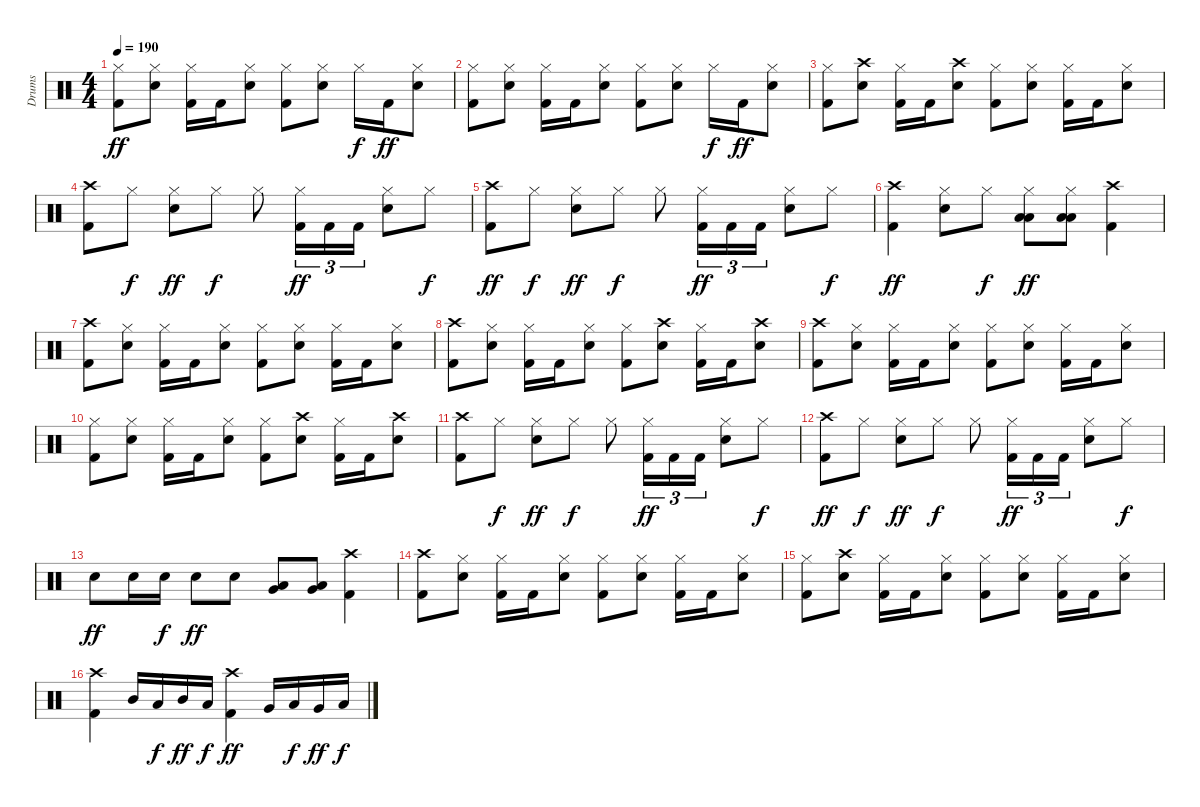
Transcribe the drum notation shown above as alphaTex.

\track ("Drums" "Drums") {instrument percussion}
\staff {score}
\articulation defaults
\ts (4 4)
\tempo 190
\clef neutral
\ks c
("Hi-Hat (closed)" "Kick (hit) 2").8{dy ff} ("Hi-Hat (closed)" "Snare (hit) 2").8 ("Hi-Hat (closed)" "Kick (hit) 2").16 "Kick (hit) 2".16 ("Hi-Hat (closed)" "Snare (hit) 2").8 ("Hi-Hat (closed)" "Kick (hit) 2").8 ("Hi-Hat (closed)" "Snare (hit) 2").8 "Hi-Hat (closed)".16{dy f} "Kick (hit) 2".16{dy ff} ("Hi-Hat (closed)" "Snare (hit) 2").8 |
("Hi-Hat (closed)" "Kick (hit) 2").8 ("Hi-Hat (closed)" "Snare (hit) 2").8 ("Hi-Hat (closed)" "Kick (hit) 2").16 "Kick (hit) 2".16 ("Hi-Hat (closed)" "Snare (hit) 2").8 ("Hi-Hat (closed)" "Kick (hit) 2").8 ("Hi-Hat (closed)" "Snare (hit) 2").8 "Hi-Hat (closed)".16{dy f} "Kick (hit) 2".16{dy ff} ("Hi-Hat (closed)" "Snare (hit) 2").8 |
("Hi-Hat (closed)" "Kick (hit) 2").8 ("Crash high (hit)" "Snare (hit) 2").8 ("Hi-Hat (closed)" "Kick (hit) 2").16 "Kick (hit) 2".16 ("Crash high (hit)" "Snare (hit) 2").8 ("Hi-Hat (closed)" "Kick (hit) 2").8 ("Hi-Hat (closed)" "Snare (hit) 2").8 ("Hi-Hat (closed)" "Kick (hit) 2").16 "Kick (hit) 2".16 ("Hi-Hat (closed)" "Snare (hit) 2").8 |
("Crash high (hit)" "Kick (hit) 2").8 "Hi-Hat (closed)".8{dy f} ("Hi-Hat (closed)" "Snare (hit) 2").8{dy ff} "Hi-Hat (closed)".8{dy f} "Hi-Hat (closed)".8 ("Hi-Hat (closed)" "Kick (hit) 2").16{tu (3 2) dy ff} "Kick (hit) 2".16{tu (3 2)} "Kick (hit) 2".16{tu (3 2)} ("Hi-Hat (closed)" "Snare (hit) 2").8 "Hi-Hat (closed)".8{dy f} |
("Crash high (hit)" "Kick (hit) 2").8{dy ff} "Hi-Hat (closed)".8{dy f} ("Hi-Hat (closed)" "Snare (hit) 2").8{dy ff} "Hi-Hat (closed)".8{dy f} "Hi-Hat (closed)".8 ("Hi-Hat (closed)" "Kick (hit) 2").16{tu (3 2) dy ff} "Kick (hit) 2".16{tu (3 2)} "Kick (hit) 2".16{tu (3 2)} ("Hi-Hat (closed)" "Snare (hit) 2").8 "Hi-Hat (closed)".8{dy f} |
("Crash high (hit)" "Kick (hit) 2").4{dy ff} ("Hi-Hat (closed)" "Snare (hit) 2").8 "Hi-Hat (closed)".8{dy f} ("Hi-Hat (closed)" "Low Tom (hit)" "Low Floor Tom (hit)").8{dy ff} ("Hi-Hat (closed)" "Low Tom (hit)" "Low Floor Tom (hit)").8 ("Crash high (hit)" "Kick (hit) 2").4 |
("Crash high (hit)" "Kick (hit) 2").8 ("Hi-Hat (closed)" "Snare (hit) 2").8 ("Hi-Hat (closed)" "Kick (hit) 2").16 "Kick (hit) 2".16 ("Hi-Hat (closed)" "Snare (hit) 2").8 ("Hi-Hat (closed)" "Kick (hit) 2").8 ("Hi-Hat (closed)" "Snare (hit) 2").8 ("Hi-Hat (closed)" "Kick (hit) 2").16 "Kick (hit) 2".16 ("Hi-Hat (closed)" "Snare (hit) 2").8 |
("Crash high (hit)" "Kick (hit) 2").8 ("Hi-Hat (closed)" "Snare (hit) 2").8 ("Hi-Hat (closed)" "Kick (hit) 2").16 "Kick (hit) 2".16 ("Hi-Hat (closed)" "Snare (hit) 2").8 ("Hi-Hat (closed)" "Kick (hit) 2").8 ("Crash high (hit)" "Snare (hit) 2").8 ("Hi-Hat (closed)" "Kick (hit) 2").16 "Kick (hit) 2".16 ("Crash high (hit)" "Snare (hit) 2").8 |
("Crash high (hit)" "Kick (hit) 2").8 ("Hi-Hat (closed)" "Snare (hit) 2").8 ("Hi-Hat (closed)" "Kick (hit) 2").16 "Kick (hit) 2".16 ("Hi-Hat (closed)" "Snare (hit) 2").8 ("Hi-Hat (closed)" "Kick (hit) 2").8 ("Hi-Hat (closed)" "Snare (hit) 2").8 ("Hi-Hat (closed)" "Kick (hit) 2").16 "Kick (hit) 2".16 ("Hi-Hat (closed)" "Snare (hit) 2").8 |
("Hi-Hat (closed)" "Kick (hit) 2").8 ("Hi-Hat (closed)" "Snare (hit) 2").8 ("Hi-Hat (closed)" "Kick (hit) 2").16 "Kick (hit) 2".16 ("Hi-Hat (closed)" "Snare (hit) 2").8 ("Hi-Hat (closed)" "Kick (hit) 2").8 ("Crash high (hit)" "Snare (hit) 2").8 ("Hi-Hat (closed)" "Kick (hit) 2").16 "Kick (hit) 2".16 ("Crash high (hit)" "Snare (hit) 2").8 |
("Crash high (hit)" "Kick (hit) 2").8 "Hi-Hat (closed)".8{dy f} ("Hi-Hat (closed)" "Snare (hit) 2").8{dy ff} "Hi-Hat (closed)".8{dy f} "Hi-Hat (closed)".8 ("Hi-Hat (closed)" "Kick (hit) 2").16{tu (3 2) dy ff} "Kick (hit) 2".16{tu (3 2)} "Kick (hit) 2".16{tu (3 2)} ("Hi-Hat (closed)" "Snare (hit) 2").8 "Hi-Hat (closed)".8{dy f} |
("Crash high (hit)" "Kick (hit) 2").8{dy ff} "Hi-Hat (closed)".8{dy f} ("Hi-Hat (closed)" "Snare (hit) 2").8{dy ff} "Hi-Hat (closed)".8{dy f} "Hi-Hat (closed)".8 ("Hi-Hat (closed)" "Kick (hit) 2").16{tu (3 2) dy ff} "Kick (hit) 2".16{tu (3 2)} "Kick (hit) 2".16{tu (3 2)} ("Hi-Hat (closed)" "Snare (hit) 2").8 "Hi-Hat (closed)".8{dy f} |
"Snare (hit) 2".8{dy ff} "Snare (hit) 2".16 "Snare (hit) 2".16{dy f} "Snare (hit) 2".8{dy ff} "Snare (hit) 2".8 ("Very Low Tom (hit)" "Low Floor Tom (hit)").8 ("Very Low Tom (hit)" "Low Floor Tom (hit)").8 ("Crash high (hit)" "Kick (hit) 2").4 |
("Crash high (hit)" "Kick (hit) 2").8 ("Hi-Hat (closed)" "Snare (hit) 2").8 ("Hi-Hat (closed)" "Kick (hit) 2").16 "Kick (hit) 2".16 ("Hi-Hat (closed)" "Snare (hit) 2").8 ("Hi-Hat (closed)" "Kick (hit) 2").8 ("Hi-Hat (closed)" "Snare (hit) 2").8 ("Hi-Hat (closed)" "Kick (hit) 2").16 "Kick (hit) 2".16 ("Hi-Hat (closed)" "Snare (hit) 2").8 |
("Hi-Hat (closed)" "Kick (hit) 2").8 ("Crash high (hit)" "Snare (hit) 2").8 ("Hi-Hat (closed)" "Kick (hit) 2").16 "Kick (hit) 2".16 ("Hi-Hat (closed)" "Snare (hit) 2").8 ("Hi-Hat (closed)" "Kick (hit) 2").8 ("Hi-Hat (closed)" "Snare (hit) 2").8 ("Hi-Hat (closed)" "Kick (hit) 2").16 "Kick (hit) 2".16 ("Hi-Hat (closed)" "Snare (hit) 2").8 |
("Crash high (hit)" "Kick (hit) 2").4 "Mid Tom (hit)".16 "Low Tom (hit)".16{dy f} "Mid Tom (hit)".16{dy ff} "Low Tom (hit)".16{dy f} ("Crash high (hit)" "Kick (hit) 2").4{dy ff} "Very Low Tom (hit)".16 "Low Floor Tom (hit)".16{dy f} "Very Low Tom (hit)".16{dy ff} "Low Floor Tom (hit)".16{dy f}
